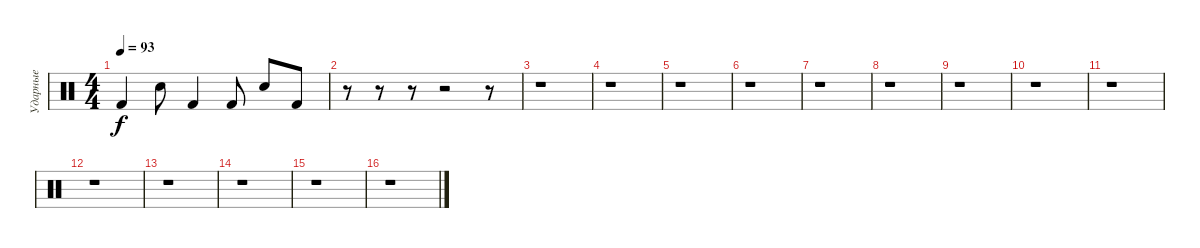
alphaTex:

\track ("Ударные" "Ударные") {instrument percussion}
\staff {score}
\articulation defaults
\ts (4 4)
\tempo 93
\clef neutral
\ks c "Kick (hit) 2".4{dy f} "Snare (hit) 2".8 "Kick (hit) 2".4 "Kick (hit) 2".8 "Snare (hit) 2".8 "Kick (hit) 2".8
|
r.8 r.8 r.8 r.2 r.8 |
r.1 |
r.1 |
r.1 |
r.1 |
r.1 |
r.1 |
r.1 |
r.1 |
r.1 |
r.1 |
r.1 |
r.1 |
r.1 |
r.1
